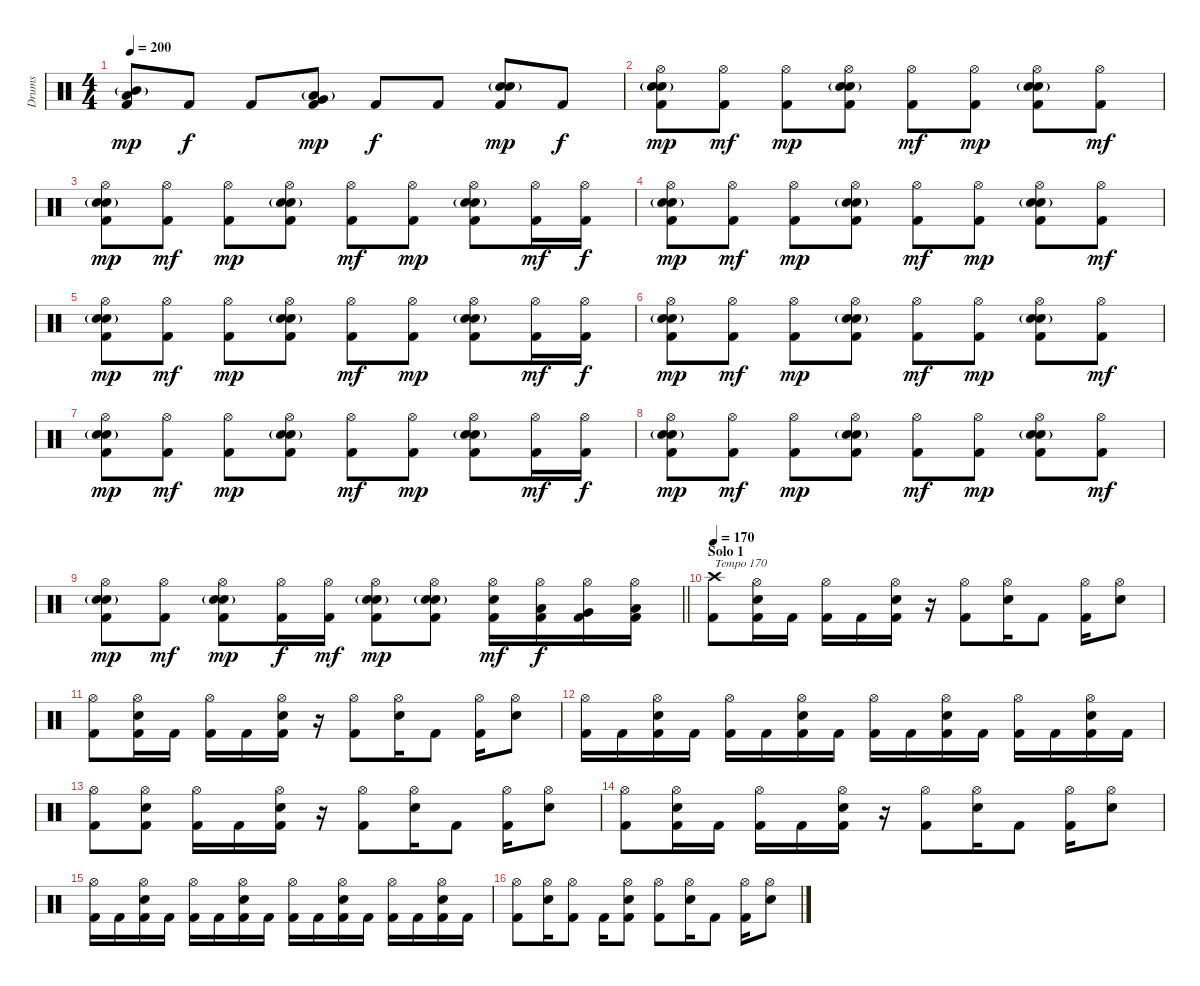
\track ("Drums" "Drums") {instrument percussion}
\staff {score}
\articulation defaults
\ts (4 4)
\tempo 200
\clef neutral
\ks c
("Mid Tom (hit)"{g} "Low Tom (hit)" "Kick (hit) 2").8{dy mp} "Kick (hit) 2".8{dy f} "Kick (hit) 2".8 ("Low Tom (hit)"{g} "Very Low Tom (hit)" "Kick (hit) 2").8{dy mp} "Kick (hit) 2".8{dy f} "Kick (hit) 2".8 ("Electric Snare (hit)"{g} "Snare (hit) 2" "Kick (hit) 2").8{dy mp} "Kick (hit) 2".8{dy f} |
("Hi-Hat (open)" "Electric Snare (hit)"{g} "Snare (hit) 2" "Kick (hit) 2").8{dy mp} ("Hi-Hat (open)" "Kick (hit) 2").8{dy mf} ("Hi-Hat (open)" "Kick (hit) 2").8{dy mp} ("Hi-Hat (open)" "Electric Snare (hit)"{g} "Snare (hit) 2" "Kick (hit) 2").8 ("Hi-Hat (open)" "Kick (hit) 2").8{dy mf} ("Hi-Hat (open)" "Kick (hit) 2").8{dy mp} ("Hi-Hat (open)" "Electric Snare (hit)"{g} "Snare (hit) 2" "Kick (hit) 2").8 ("Hi-Hat (open)" "Kick (hit) 2").8{dy mf} |
("Hi-Hat (open)" "Electric Snare (hit)"{g} "Snare (hit) 2" "Kick (hit) 2").8{dy mp} ("Hi-Hat (open)" "Kick (hit) 2").8{dy mf} ("Hi-Hat (open)" "Kick (hit) 2").8{dy mp} ("Hi-Hat (open)" "Electric Snare (hit)"{g} "Snare (hit) 2" "Kick (hit) 2").8 ("Hi-Hat (open)" "Kick (hit) 2").8{dy mf} ("Hi-Hat (open)" "Kick (hit) 2").8{dy mp} ("Hi-Hat (open)" "Electric Snare (hit)"{g} "Snare (hit) 2" "Kick (hit) 2").8 ("Hi-Hat (open)" "Kick (hit) 2").16{dy mf} ("Hi-Hat (open)" "Kick (hit) 2").16{dy f} |
("Hi-Hat (open)" "Electric Snare (hit)"{g} "Snare (hit) 2" "Kick (hit) 2").8{dy mp} ("Hi-Hat (open)" "Kick (hit) 2").8{dy mf} ("Hi-Hat (open)" "Kick (hit) 2").8{dy mp} ("Hi-Hat (open)" "Electric Snare (hit)"{g} "Snare (hit) 2" "Kick (hit) 2").8 ("Hi-Hat (open)" "Kick (hit) 2").8{dy mf} ("Hi-Hat (open)" "Kick (hit) 2").8{dy mp} ("Hi-Hat (open)" "Electric Snare (hit)"{g} "Snare (hit) 2" "Kick (hit) 2").8 ("Hi-Hat (open)" "Kick (hit) 2").8{dy mf} |
("Hi-Hat (open)" "Electric Snare (hit)"{g} "Snare (hit) 2" "Kick (hit) 2").8{dy mp} ("Hi-Hat (open)" "Kick (hit) 2").8{dy mf} ("Hi-Hat (open)" "Kick (hit) 2").8{dy mp} ("Hi-Hat (open)" "Electric Snare (hit)"{g} "Snare (hit) 2" "Kick (hit) 2").8 ("Hi-Hat (open)" "Kick (hit) 2").8{dy mf} ("Hi-Hat (open)" "Kick (hit) 2").8{dy mp} ("Hi-Hat (open)" "Electric Snare (hit)"{g} "Snare (hit) 2" "Kick (hit) 2").8 ("Hi-Hat (open)" "Kick (hit) 2").16{dy mf} ("Hi-Hat (open)" "Kick (hit) 2").16{dy f} |
("Hi-Hat (open)" "Electric Snare (hit)"{g} "Snare (hit) 2" "Kick (hit) 2").8{dy mp} ("Hi-Hat (open)" "Kick (hit) 2").8{dy mf} ("Hi-Hat (open)" "Kick (hit) 2").8{dy mp} ("Hi-Hat (open)" "Electric Snare (hit)"{g} "Snare (hit) 2" "Kick (hit) 2").8 ("Hi-Hat (open)" "Kick (hit) 2").8{dy mf} ("Hi-Hat (open)" "Kick (hit) 2").8{dy mp} ("Hi-Hat (open)" "Electric Snare (hit)"{g} "Snare (hit) 2" "Kick (hit) 2").8 ("Hi-Hat (open)" "Kick (hit) 2").8{dy mf} |
("Hi-Hat (open)" "Electric Snare (hit)"{g} "Snare (hit) 2" "Kick (hit) 2").8{dy mp} ("Hi-Hat (open)" "Kick (hit) 2").8{dy mf} ("Hi-Hat (open)" "Kick (hit) 2").8{dy mp} ("Hi-Hat (open)" "Electric Snare (hit)"{g} "Snare (hit) 2" "Kick (hit) 2").8 ("Hi-Hat (open)" "Kick (hit) 2").8{dy mf} ("Hi-Hat (open)" "Kick (hit) 2").8{dy mp} ("Hi-Hat (open)" "Electric Snare (hit)"{g} "Snare (hit) 2" "Kick (hit) 2").8 ("Hi-Hat (open)" "Kick (hit) 2").16{dy mf} ("Hi-Hat (open)" "Kick (hit) 2").16{dy f} |
("Hi-Hat (open)" "Electric Snare (hit)"{g} "Snare (hit) 2" "Kick (hit) 2").8{dy mp} ("Hi-Hat (open)" "Kick (hit) 2").8{dy mf} ("Hi-Hat (open)" "Kick (hit) 2").8{dy mp} ("Hi-Hat (open)" "Electric Snare (hit)"{g} "Snare (hit) 2" "Kick (hit) 2").8 ("Hi-Hat (open)" "Kick (hit) 2").8{dy mf} ("Hi-Hat (open)" "Kick (hit) 2").8{dy mp} ("Hi-Hat (open)" "Electric Snare (hit)"{g} "Snare (hit) 2" "Kick (hit) 2").8 ("Hi-Hat (open)" "Kick (hit) 2").8{dy mf} |
\barLineRight lightlight
("Hi-Hat (open)" "Electric Snare (hit)"{g} "Snare (hit) 2" "Kick (hit) 2").8{dy mp} ("Hi-Hat (open)" "Kick (hit) 2").8{dy mf} ("Hi-Hat (open)" "Electric Snare (hit)"{g} "Snare (hit) 2" "Kick (hit) 2").8{dy mp} ("Hi-Hat (open)" "Kick (hit) 2").16{dy f} ("Hi-Hat (open)" "Kick (hit) 2").16{dy mf} ("Hi-Hat (open)" "Electric Snare (hit)"{g} "Snare (hit) 2" "Kick (hit) 2").8{dy mp} ("Hi-Hat (open)" "Electric Snare (hit)"{g} "Snare (hit) 2" "Kick (hit) 2").8 ("Hi-Hat (open)" "Snare (hit) 2" "Kick (hit) 2").16{dy mf} ("Hi-Hat (open)" "Low Tom (hit)" "Kick (hit) 2").16{dy f} ("Hi-Hat (open)" "Very Low Tom (hit)" "Kick (hit) 2").16 ("Hi-Hat (open)" "Low Floor Tom (hit)" "Kick (hit) 2").16 |
\section ("" "Solo 1")
\tempo 170
("Crash high (hit)" "Kick (hit) 2").8{txt "Tempo 170"} ("Hi-Hat (open)" "Snare (hit) 2" "Kick (hit) 2").16 "Kick (hit) 2".16 ("Hi-Hat (open)" "Kick (hit) 2").16 "Kick (hit) 2".16 ("Hi-Hat (open)" "Snare (hit) 2" "Kick (hit) 2").16 r.16 ("Hi-Hat (open)" "Kick (hit) 2").8 ("Hi-Hat (open)" "Snare (hit) 2").16 "Kick (hit) 2".8 ("Hi-Hat (open)" "Kick (hit) 2").16 ("Hi-Hat (open)" "Snare (hit) 2").8 |
("Hi-Hat (open)" "Kick (hit) 2").8 ("Hi-Hat (open)" "Snare (hit) 2" "Kick (hit) 2").16 "Kick (hit) 2".16 ("Hi-Hat (open)" "Kick (hit) 2").16 "Kick (hit) 2".16 ("Hi-Hat (open)" "Snare (hit) 2" "Kick (hit) 2").16 r.16 ("Hi-Hat (open)" "Kick (hit) 2").8 ("Hi-Hat (open)" "Snare (hit) 2").16 "Kick (hit) 2".8 ("Hi-Hat (open)" "Kick (hit) 2").16 ("Hi-Hat (open)" "Snare (hit) 2").8 |
("Hi-Hat (open)" "Kick (hit) 2").16 "Kick (hit) 2".16 ("Hi-Hat (open)" "Snare (hit) 2" "Kick (hit) 2").16 "Kick (hit) 2".16 ("Hi-Hat (open)" "Kick (hit) 2").16 "Kick (hit) 2".16 ("Hi-Hat (open)" "Snare (hit) 2" "Kick (hit) 2").16 "Kick (hit) 2".16 ("Hi-Hat (open)" "Kick (hit) 2").16 "Kick (hit) 2".16 ("Hi-Hat (open)" "Snare (hit) 2" "Kick (hit) 2").16 "Kick (hit) 2".16 ("Hi-Hat (open)" "Kick (hit) 2").16 "Kick (hit) 2".16 ("Hi-Hat (open)" "Snare (hit) 2" "Kick (hit) 2").16 "Kick (hit) 2".16 |
("Hi-Hat (open)" "Kick (hit) 2").8 ("Hi-Hat (open)" "Snare (hit) 2" "Kick (hit) 2").8 ("Hi-Hat (open)" "Kick (hit) 2").16 "Kick (hit) 2".16 ("Hi-Hat (open)" "Snare (hit) 2" "Kick (hit) 2").16 r.16 ("Hi-Hat (open)" "Kick (hit) 2").8 ("Hi-Hat (open)" "Snare (hit) 2").16 "Kick (hit) 2".8 ("Hi-Hat (open)" "Kick (hit) 2").16 ("Hi-Hat (open)" "Snare (hit) 2").8 |
("Hi-Hat (open)" "Kick (hit) 2").8 ("Hi-Hat (open)" "Snare (hit) 2" "Kick (hit) 2").16 "Kick (hit) 2".16 ("Hi-Hat (open)" "Kick (hit) 2").16 "Kick (hit) 2".16 ("Hi-Hat (open)" "Snare (hit) 2" "Kick (hit) 2").16 r.16 ("Hi-Hat (open)" "Kick (hit) 2").8 ("Hi-Hat (open)" "Snare (hit) 2").16 "Kick (hit) 2".8 ("Hi-Hat (open)" "Kick (hit) 2").16 ("Hi-Hat (open)" "Snare (hit) 2").8 |
("Hi-Hat (open)" "Kick (hit) 2").16 "Kick (hit) 2".16 ("Hi-Hat (open)" "Snare (hit) 2" "Kick (hit) 2").16 "Kick (hit) 2".16 ("Hi-Hat (open)" "Kick (hit) 2").16 "Kick (hit) 2".16 ("Hi-Hat (open)" "Snare (hit) 2" "Kick (hit) 2").16 "Kick (hit) 2".16 ("Hi-Hat (open)" "Kick (hit) 2").16 "Kick (hit) 2".16 ("Hi-Hat (open)" "Snare (hit) 2" "Kick (hit) 2").16 "Kick (hit) 2".16 ("Hi-Hat (open)" "Kick (hit) 2").16 "Kick (hit) 2".16 ("Hi-Hat (open)" "Snare (hit) 2" "Kick (hit) 2").16 "Kick (hit) 2".16 |
("Hi-Hat (open)" "Kick (hit) 2").8 ("Hi-Hat (open)" "Snare (hit) 2").16 ("Hi-Hat (open)" "Kick (hit) 2").8 "Kick (hit) 2".16 ("Hi-Hat (open)" "Snare (hit) 2" "Kick (hit) 2").8 ("Hi-Hat (open)" "Kick (hit) 2").8 ("Hi-Hat (open)" "Snare (hit) 2").16 "Kick (hit) 2".8 ("Hi-Hat (open)" "Kick (hit) 2").16 ("Hi-Hat (open)" "Snare (hit) 2").8
